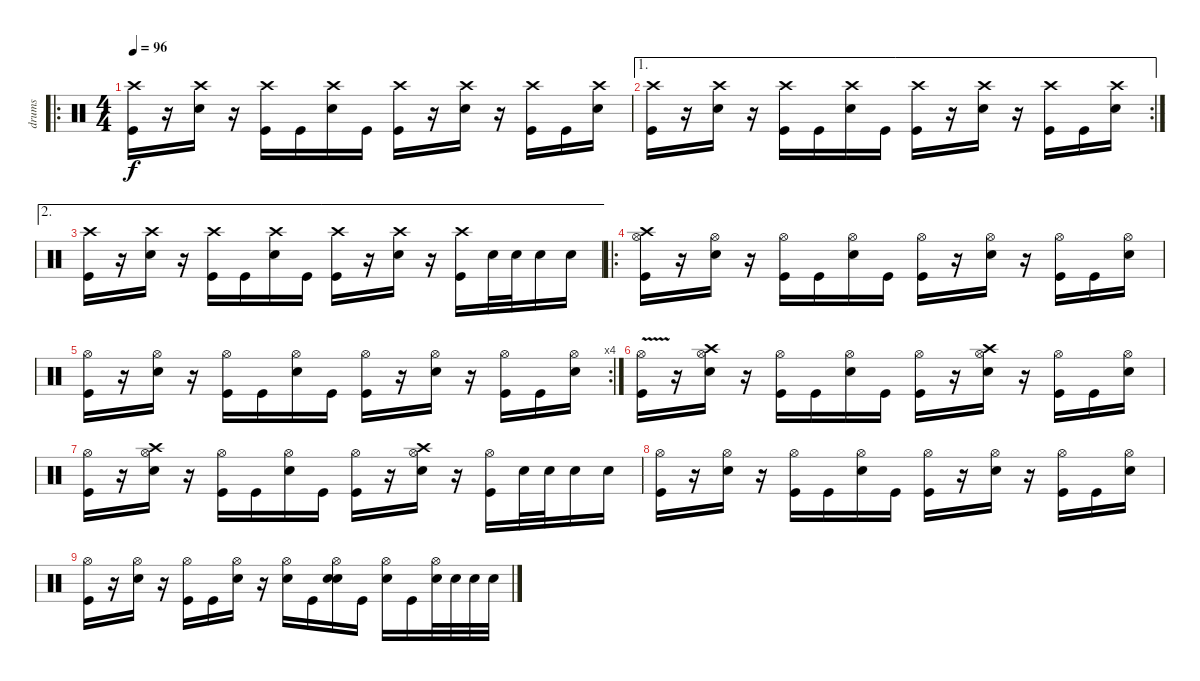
\track ("drums" "drums") {instrument percussion}
\staff {score}
\articulation defaults
\ro
\ts (4 4)
\tempo 96
\clef neutral
\ks c
("Crash high (hit)" "Kick (hit)").16{dy f} r.16 ("Crash high (hit)" "Electric Snare (hit)").16 r.16 ("Crash high (hit)" "Kick (hit)").16 "Kick (hit)".16 ("Crash high (hit)" "Electric Snare (hit)").16 "Kick (hit)".16 ("Crash high (hit)" "Kick (hit)").16 r.16 ("Crash high (hit)" "Electric Snare (hit)").16 r.16 ("Crash high (hit)" "Kick (hit)").16 "Kick (hit)".16 ("Crash high (hit)" "Electric Snare (hit)").16 |
\ae 1
\rc 2
("Crash high (hit)" "Kick (hit)").16 r.16 ("Crash high (hit)" "Electric Snare (hit)").16 r.16 ("Crash high (hit)" "Kick (hit)").16 "Kick (hit)".16 ("Crash high (hit)" "Electric Snare (hit)").16 "Kick (hit)".16 ("Crash high (hit)" "Kick (hit)").16 r.16 ("Crash high (hit)" "Electric Snare (hit)").16 r.16 ("Crash high (hit)" "Kick (hit)").16 "Kick (hit)".16 ("Crash high (hit)" "Electric Snare (hit)").16 |
\ae 2
("Crash high (hit)" "Kick (hit)").16 r.16 ("Crash high (hit)" "Electric Snare (hit)").16 r.16 ("Crash high (hit)" "Kick (hit)").16 "Kick (hit)".16 ("Crash high (hit)" "Electric Snare (hit)").16 "Kick (hit)".16 ("Crash high (hit)" "Kick (hit)").16 r.16 ("Crash high (hit)" "Electric Snare (hit)").16 r.16 ("Crash high (hit)" "Kick (hit)").16 "Electric Snare (hit)".32 "Electric Snare (hit)".32 "Electric Snare (hit)".16 "Electric Snare (hit)".16 |
\ro
("Crash high (hit)" "Hi-Hat (open)" "Kick (hit)").16 r.16 ("Hi-Hat (open)" "Electric Snare (hit)").16 r.16 ("Hi-Hat (open)" "Kick (hit)").16 "Kick (hit)".16 ("Hi-Hat (open)" "Electric Snare (hit)").16 "Kick (hit)".16 ("Hi-Hat (open)" "Kick (hit)").16 r.16 ("Hi-Hat (open)" "Electric Snare (hit)").16 r.16 ("Hi-Hat (open)" "Kick (hit)").16 "Kick (hit)".16 ("Hi-Hat (open)" "Electric Snare (hit)").16 |
\rc 4
("Hi-Hat (open)" "Kick (hit)").16 r.16 ("Hi-Hat (open)" "Electric Snare (hit)").16 r.16 ("Hi-Hat (open)" "Kick (hit)").16 "Kick (hit)".16 ("Hi-Hat (open)" "Electric Snare (hit)").16 "Kick (hit)".16 ("Hi-Hat (open)" "Kick (hit)").16 r.16 ("Hi-Hat (open)" "Electric Snare (hit)").16 r.16 ("Hi-Hat (open)" "Kick (hit)").16 "Kick (hit)".16 ("Hi-Hat (open)" "Electric Snare (hit)").16 |
("Hi-Hat (open)"{v} "Kick (hit)").16 r.16 ("Crash high (hit)" "Hi-Hat (open)" "Electric Snare (hit)").16 r.16 ("Hi-Hat (open)" "Kick (hit)").16 "Kick (hit)".16 ("Hi-Hat (open)" "Electric Snare (hit)").16 "Kick (hit)".16 ("Hi-Hat (open)" "Kick (hit)").16 r.16 ("Crash high (hit)" "Hi-Hat (open)" "Electric Snare (hit)").16 r.16 ("Hi-Hat (open)" "Kick (hit)").16 "Kick (hit)".16 ("Hi-Hat (open)" "Electric Snare (hit)").16 |
("Hi-Hat (open)" "Kick (hit)").16 r.16 ("Crash high (hit)" "Hi-Hat (open)" "Electric Snare (hit)").16 r.16 ("Hi-Hat (open)" "Kick (hit)").16 "Kick (hit)".16 ("Hi-Hat (open)" "Electric Snare (hit)").16 "Kick (hit)".16 ("Hi-Hat (open)" "Kick (hit)").16 r.16 ("Crash high (hit)" "Hi-Hat (open)" "Electric Snare (hit)").16 r.16 ("Hi-Hat (open)" "Kick (hit)").16 "Electric Snare (hit)".32 "Electric Snare (hit)".32 "Electric Snare (hit)".16 "Electric Snare (hit)".16 |
("Hi-Hat (open)" "Kick (hit)").16 r.16 ("Hi-Hat (open)" "Electric Snare (hit)").16 r.16 ("Hi-Hat (open)" "Kick (hit)").16 "Kick (hit)".16 ("Hi-Hat (open)" "Electric Snare (hit)").16 "Kick (hit)".16 ("Hi-Hat (open)" "Kick (hit)").16 r.16 ("Hi-Hat (open)" "Electric Snare (hit)").16 r.16 ("Hi-Hat (open)" "Kick (hit)").16 "Kick (hit)".16 ("Hi-Hat (open)" "Electric Snare (hit)").16 |
("Hi-Hat (open)" "Kick (hit)").16 r.16 ("Hi-Hat (open)" "Electric Snare (hit)").16 r.16 ("Hi-Hat (open)" "Kick (hit)").16 "Kick (hit)".16 ("Hi-Hat (open)" "Electric Snare (hit)").16 r.16 ("Hi-Hat (open)" "Electric Snare (hit)").16 "Kick (hit)".16 ("Hi-Hat (open)" "Electric Snare (hit)" "Electric Snare (hit)").16 "Kick (hit)".16 ("Hi-Hat (open)" "Electric Snare (hit)").16 "Kick (hit)".16 ("Hi-Hat (open)" "Electric Snare (hit)").32 "Electric Snare (hit)".32 "Electric Snare (hit)".32 "Electric Snare (hit)".32
